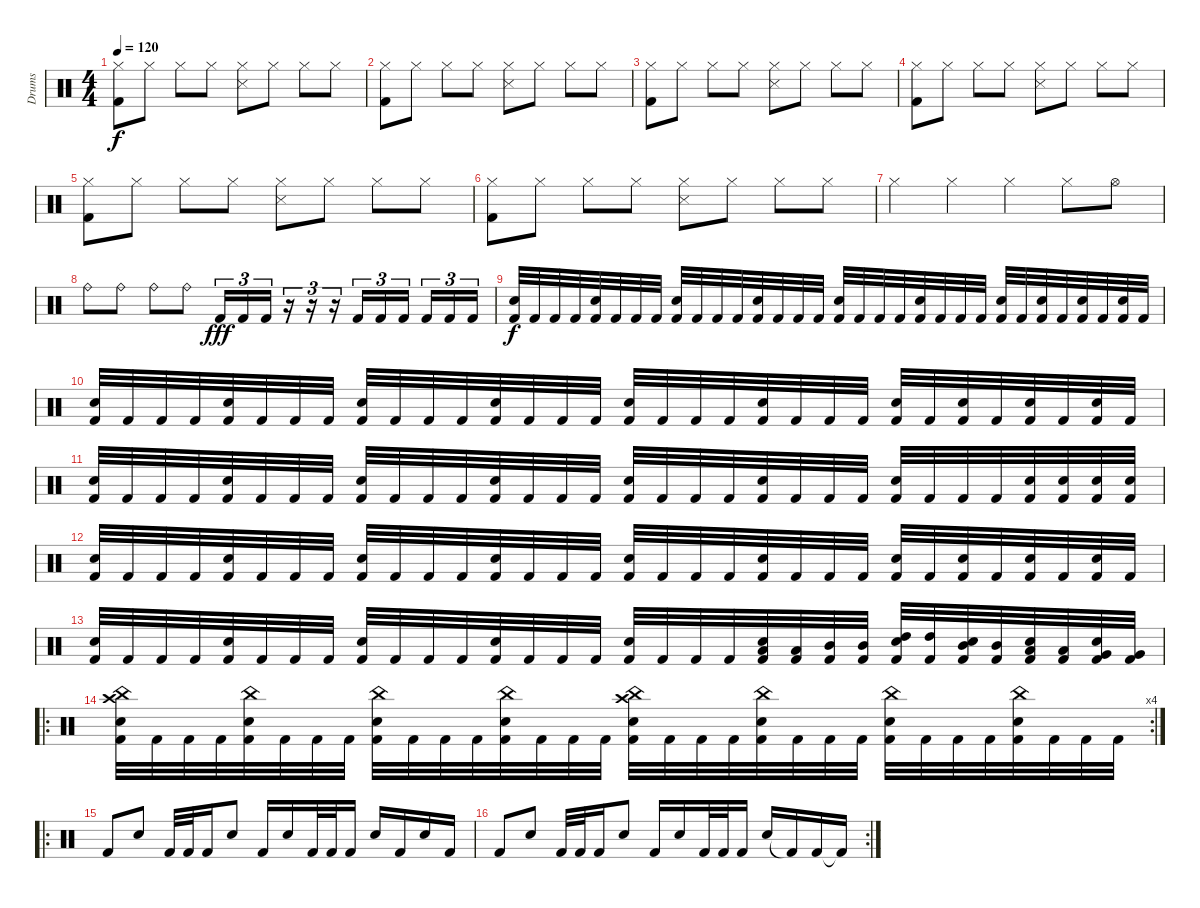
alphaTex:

\track ("Drums" "Drums") {instrument percussion}
\staff {score}
\articulation defaults
\ts (4 4)
\tempo 120
\clef neutral
\ks c
("Hi-Hat (closed)" "Kick (hit) 2").8{dy f} "Hi-Hat (closed)".8 "Hi-Hat (closed)".8 "Hi-Hat (closed)".8 ("Hi-Hat (closed)" "Snare (side stick) 3").8 "Hi-Hat (closed)".8 "Hi-Hat (closed)".8 "Hi-Hat (closed)".8 |
("Hi-Hat (closed)" "Kick (hit) 2").8 "Hi-Hat (closed)".8 "Hi-Hat (closed)".8 "Hi-Hat (closed)".8 ("Hi-Hat (closed)" "Snare (side stick) 3").8 "Hi-Hat (closed)".8 "Hi-Hat (closed)".8 "Hi-Hat (closed)".8 |
("Hi-Hat (closed)" "Kick (hit) 2").8 "Hi-Hat (closed)".8 "Hi-Hat (closed)".8 "Hi-Hat (closed)".8 ("Hi-Hat (closed)" "Snare (side stick) 3").8 "Hi-Hat (closed)".8 "Hi-Hat (closed)".8 "Hi-Hat (closed)".8 |
("Hi-Hat (closed)" "Kick (hit) 2").8 "Hi-Hat (closed)".8 "Hi-Hat (closed)".8 "Hi-Hat (closed)".8 ("Hi-Hat (closed)" "Snare (side stick) 3").8 "Hi-Hat (closed)".8 "Hi-Hat (closed)".8 "Hi-Hat (closed)".8 |
("Hi-Hat (closed)" "Kick (hit) 2").8 "Hi-Hat (closed)".8 "Hi-Hat (closed)".8 "Hi-Hat (closed)".8 ("Hi-Hat (closed)" "Snare (side stick) 3").8 "Hi-Hat (closed)".8 "Hi-Hat (closed)".8 "Hi-Hat (closed)".8 |
("Hi-Hat (closed)" "Kick (hit) 2").8 "Hi-Hat (closed)".8 "Hi-Hat (closed)".8 "Hi-Hat (closed)".8 ("Hi-Hat (closed)" "Snare (side stick) 3").8 "Hi-Hat (closed)".8 "Hi-Hat (closed)".8 "Hi-Hat (closed)".8 |
"Hi-Hat (closed)".4 "Hi-Hat (closed)".4 "Hi-Hat (closed)".4 "Hi-Hat (closed)".8 "Hi-Hat (open)".8 |
"Ride (bell)".8 "Ride (bell)".8 "Ride (bell)".8 "Ride (bell)".8 "Kick (hit) 2".16{tu (3 2) dy fff} "Kick (hit) 2".16{tu (3 2)} "Kick (hit) 2".16{tu (3 2)} r.16{tu (3 2)} r.16{tu (3 2)} r.16{tu (3 2)} "Kick (hit) 2".16{tu (3 2)} "Kick (hit) 2".16{tu (3 2)} "Kick (hit) 2".16{tu (3 2)} "Kick (hit) 2".16{tu (3 2)} "Kick (hit) 2".16{tu (3 2)} "Kick (hit) 2".16{tu (3 2)} |
("Electric Snare (hit)" "Kick (hit) 2").32{dy f} "Kick (hit) 2".32 "Kick (hit) 2".32 "Kick (hit) 2".32 ("Electric Snare (hit)" "Kick (hit) 2").32 "Kick (hit) 2".32 "Kick (hit) 2".32 "Kick (hit) 2".32 ("Electric Snare (hit)" "Kick (hit) 2").32 "Kick (hit) 2".32 "Kick (hit) 2".32 "Kick (hit) 2".32 ("Electric Snare (hit)" "Kick (hit) 2").32 "Kick (hit) 2".32 "Kick (hit) 2".32 "Kick (hit) 2".32 ("Electric Snare (hit)" "Kick (hit) 2").32 "Kick (hit) 2".32 "Kick (hit) 2".32 "Kick (hit) 2".32 ("Electric Snare (hit)" "Kick (hit) 2").32 "Kick (hit) 2".32 "Kick (hit) 2".32 "Kick (hit) 2".32 ("Electric Snare (hit)" "Kick (hit) 2").32 "Kick (hit) 2".32 ("Electric Snare (hit)" "Kick (hit) 2").32 "Kick (hit) 2".32 ("Electric Snare (hit)" "Kick (hit) 2").32 "Kick (hit) 2".32 ("Electric Snare (hit)" "Kick (hit) 2").32 "Kick (hit) 2".32 |
("Electric Snare (hit)" "Kick (hit) 2").32 "Kick (hit) 2".32 "Kick (hit) 2".32 "Kick (hit) 2".32 ("Electric Snare (hit)" "Kick (hit) 2").32 "Kick (hit) 2".32 "Kick (hit) 2".32 "Kick (hit) 2".32 ("Electric Snare (hit)" "Kick (hit) 2").32 "Kick (hit) 2".32 "Kick (hit) 2".32 "Kick (hit) 2".32 ("Electric Snare (hit)" "Kick (hit) 2").32 "Kick (hit) 2".32 "Kick (hit) 2".32 "Kick (hit) 2".32 ("Electric Snare (hit)" "Kick (hit) 2").32 "Kick (hit) 2".32 "Kick (hit) 2".32 "Kick (hit) 2".32 ("Electric Snare (hit)" "Kick (hit) 2").32 "Kick (hit) 2".32 "Kick (hit) 2".32 "Kick (hit) 2".32 ("Electric Snare (hit)" "Kick (hit) 2").32 "Kick (hit) 2".32 ("Electric Snare (hit)" "Kick (hit) 2").32 "Kick (hit) 2".32 ("Electric Snare (hit)" "Kick (hit) 2").32 "Kick (hit) 2".32 ("Electric Snare (hit)" "Kick (hit) 2").32 "Kick (hit) 2".32 |
("Electric Snare (hit)" "Kick (hit) 2").32 "Kick (hit) 2".32 "Kick (hit) 2".32 "Kick (hit) 2".32 ("Electric Snare (hit)" "Kick (hit) 2").32 "Kick (hit) 2".32 "Kick (hit) 2".32 "Kick (hit) 2".32 ("Electric Snare (hit)" "Kick (hit) 2").32 "Kick (hit) 2".32 "Kick (hit) 2".32 "Kick (hit) 2".32 ("Electric Snare (hit)" "Kick (hit) 2").32 "Kick (hit) 2".32 "Kick (hit) 2".32 "Kick (hit) 2".32 ("Electric Snare (hit)" "Kick (hit) 2").32 "Kick (hit) 2".32 "Kick (hit) 2".32 "Kick (hit) 2".32 ("Electric Snare (hit)" "Kick (hit) 2").32 "Kick (hit) 2".32 "Kick (hit) 2".32 "Kick (hit) 2".32 ("Electric Snare (hit)" "Kick (hit) 2").32 "Kick (hit) 2".32 "Kick (hit) 2".32 "Kick (hit) 2".32 ("Electric Snare (hit)" "Kick (hit) 2").32 ("Electric Snare (hit)" "Kick (hit) 2").32 ("Electric Snare (hit)" "Kick (hit) 2").32 ("Electric Snare (hit)" "Kick (hit) 2").32 |
("Electric Snare (hit)" "Kick (hit) 2").32 "Kick (hit) 2".32 "Kick (hit) 2".32 "Kick (hit) 2".32 ("Electric Snare (hit)" "Kick (hit) 2").32 "Kick (hit) 2".32 "Kick (hit) 2".32 "Kick (hit) 2".32 ("Electric Snare (hit)" "Kick (hit) 2").32 "Kick (hit) 2".32 "Kick (hit) 2".32 "Kick (hit) 2".32 ("Electric Snare (hit)" "Kick (hit) 2").32 "Kick (hit) 2".32 "Kick (hit) 2".32 "Kick (hit) 2".32 ("Electric Snare (hit)" "Kick (hit) 2").32 "Kick (hit) 2".32 "Kick (hit) 2".32 "Kick (hit) 2".32 ("Electric Snare (hit)" "Kick (hit) 2").32 "Kick (hit) 2".32 "Kick (hit) 2".32 "Kick (hit) 2".32 ("Electric Snare (hit)" "Kick (hit) 2").32 "Kick (hit) 2".32 ("Electric Snare (hit)" "Kick (hit) 2").32 "Kick (hit) 2".32 ("Electric Snare (hit)" "Kick (hit) 2").32 "Kick (hit) 2".32 ("Electric Snare (hit)" "Kick (hit) 2").32 "Kick (hit) 2".32 |
("Electric Snare (hit)" "Kick (hit) 2").32 "Kick (hit) 2".32 "Kick (hit) 2".32 "Kick (hit) 2".32 ("Electric Snare (hit)" "Kick (hit) 2").32 "Kick (hit) 2".32 "Kick (hit) 2".32 "Kick (hit) 2".32 ("Electric Snare (hit)" "Kick (hit) 2").32 "Kick (hit) 2".32 "Kick (hit) 2".32 "Kick (hit) 2".32 ("Electric Snare (hit)" "Kick (hit) 2").32 "Kick (hit) 2".32 "Kick (hit) 2".32 "Kick (hit) 2".32 ("Electric Snare (hit)" "Kick (hit) 2").32 "Kick (hit) 2".32 "Kick (hit) 2".32 "Kick (hit) 2".32 ("Low Tom (hit)" "Electric Snare (hit)" "Kick (hit) 2").32 ("Low Tom (hit)" "Kick (hit) 2").32 ("Mid Tom (hit)" "Kick (hit) 2").32 ("Mid Tom (hit)" "Kick (hit) 2").32 ("High Tom (hit)" "Electric Snare (hit)" "Kick (hit) 2").32 ("High Tom (hit)" "Kick (hit) 2").32 ("Mid Tom (hit)" "Electric Snare (hit)" "Kick (hit) 2").32 ("Mid Tom (hit)" "Kick (hit) 2").32 ("Low Tom (hit)" "Electric Snare (hit)" "Kick (hit) 2").32 ("Low Tom (hit)" "Kick (hit) 2").32 ("Very Low Tom (hit)" "Electric Snare (hit)" "Kick (hit) 2").32 ("Very Low Tom (hit)" "Kick (hit) 2").32 |
\ro
\rc 4
("China (hit)" "Crash high (hit)" "Electric Snare (hit)" "Kick (hit) 2").32 "Kick (hit) 2".32 "Kick (hit) 2".32 "Kick (hit) 2".32 ("China (hit)" "Electric Snare (hit)" "Kick (hit) 2").32 "Kick (hit) 2".32 "Kick (hit) 2".32 "Kick (hit) 2".32 ("China (hit)" "Electric Snare (hit)" "Kick (hit) 2").32 "Kick (hit) 2".32 "Kick (hit) 2".32 "Kick (hit) 2".32 ("China (hit)" "Electric Snare (hit)" "Kick (hit) 2").32 "Kick (hit) 2".32 "Kick (hit) 2".32 "Kick (hit) 2".32 ("China (hit)" "Crash high (hit)" "Electric Snare (hit)" "Kick (hit) 2").32 "Kick (hit) 2".32 "Kick (hit) 2".32 "Kick (hit) 2".32 ("China (hit)" "Electric Snare (hit)" "Kick (hit) 2").32 "Kick (hit) 2".32 "Kick (hit) 2".32 "Kick (hit) 2".32 ("China (hit)" "Electric Snare (hit)" "Kick (hit) 2").32 "Kick (hit) 2".32 "Kick (hit) 2".32 "Kick (hit) 2".32 ("China (hit)" "Electric Snare (hit)" "Kick (hit) 2").32 "Kick (hit) 2".32 "Kick (hit) 2".32 "Kick (hit) 2".32 |
\ro "Kick (hit) 2".8 "Electric Snare (hit)".8 "Kick (hit) 2".32 "Kick (hit) 2".32 "Kick (hit) 2".16 "Electric Snare (hit)".8 "Kick (hit) 2".16 "Electric Snare (hit)".16 "Kick (hit) 2".32 "Kick (hit) 2".32 "Kick (hit) 2".16 "Electric Snare (hit)".16 "Kick (hit) 2".16 "Electric Snare (hit)".16 "Kick (hit) 2".16
|
\rc 2 "Kick (hit) 2".8 "Electric Snare (hit)".8 "Kick (hit) 2".32 "Kick (hit) 2".32 "Kick (hit) 2".16 "Electric Snare (hit)".8 "Kick (hit) 2".16 "Electric Snare (hit)".16 "Kick (hit) 2".32 "Kick (hit) 2".32 "Kick (hit) 2".16 "Electric Snare (hit)".16 "Kick (hit) 2"{t}.16 "Kick (hit) 2".16 "Kick (hit) 2"{t}.16
